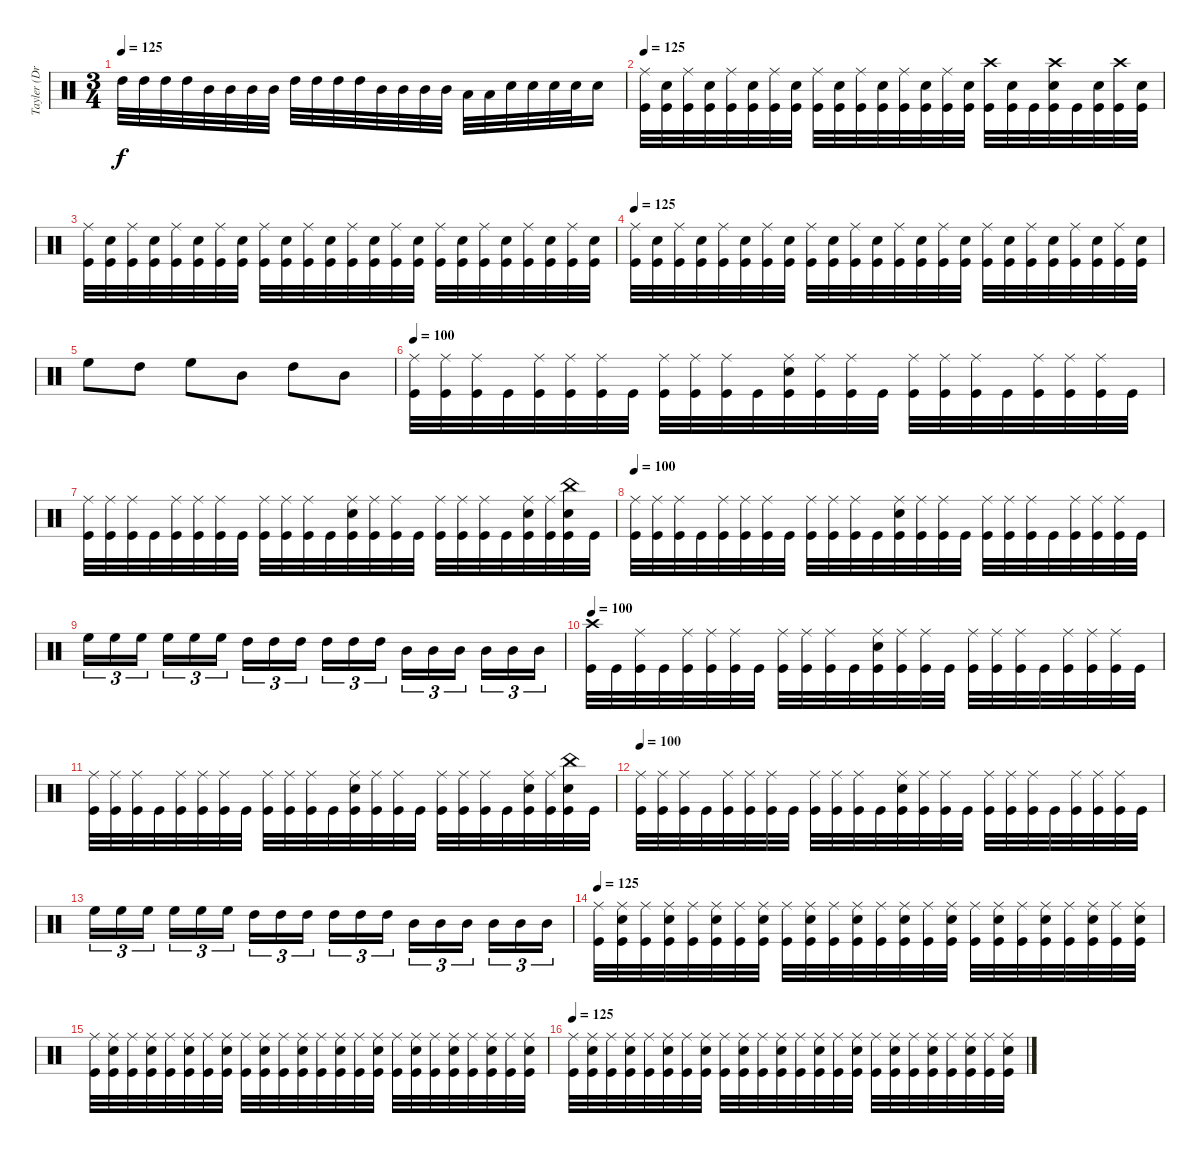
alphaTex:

\track ("Tayler (Drums)" "Tayler (Dr") {instrument percussion}
\staff {score}
\articulation defaults
\ts (3 4)
\tempo 125
\clef neutral
\ks c "High Tom (hit)".32{dy f} "High Tom (hit)".32 "High Tom (hit)".32 "High Tom (hit)".32 "Mid Tom (hit)".32 "Mid Tom (hit)".32 "Mid Tom (hit)".32 "Mid Tom (hit)".32 "High Tom (hit)".32 "High Tom (hit)".32 "High Tom (hit)".32 "High Tom (hit)".32 "Mid Tom (hit)".32 "Mid Tom (hit)".32 "Mid Tom (hit)".32 "Mid Tom (hit)".32 "Low Tom (hit)".32 "Low Tom (hit)".32 "Electric Snare (hit)".32 "Electric Snare (hit)".32 "Electric Snare (hit)".32 "Electric Snare (hit)".32 "Electric Snare (hit)".16
|
\tempo 125
("Ride (middle)" "Kick (hit)").32 ("Electric Snare (hit)" "Kick (hit)").32 ("Ride (middle)" "Kick (hit)").32 ("Electric Snare (hit)" "Kick (hit)").32 ("Ride (middle)" "Kick (hit)").32 ("Electric Snare (hit)" "Kick (hit)").32 ("Ride (middle)" "Kick (hit)").32 ("Electric Snare (hit)" "Kick (hit)").32 ("Ride (middle)" "Kick (hit)").32 ("Electric Snare (hit)" "Kick (hit)").32 ("Ride (middle)" "Kick (hit)").32 ("Electric Snare (hit)" "Kick (hit)").32 ("Ride (middle)" "Kick (hit)").32 ("Electric Snare (hit)" "Kick (hit)").32 ("Ride (middle)" "Kick (hit)").32 ("Electric Snare (hit)" "Kick (hit)").32 ("Crash high (hit)" "Kick (hit)").32 ("Electric Snare (hit)" "Kick (hit)").32 "Kick (hit)".32 ("Crash high (hit)" "Electric Snare (hit)" "Kick (hit)").32 "Kick (hit)".32 ("Electric Snare (hit)" "Kick (hit)").32 ("Crash high (hit)" "Kick (hit)").32 ("Electric Snare (hit)" "Kick (hit)").32 |
("Ride (middle)" "Kick (hit)").32 ("Electric Snare (hit)" "Kick (hit)").32 ("Ride (middle)" "Kick (hit)").32 ("Electric Snare (hit)" "Kick (hit)").32 ("Ride (middle)" "Kick (hit)").32 ("Electric Snare (hit)" "Kick (hit)").32 ("Ride (middle)" "Kick (hit)").32 ("Electric Snare (hit)" "Kick (hit)").32 ("Ride (middle)" "Kick (hit)").32 ("Electric Snare (hit)" "Kick (hit)").32 ("Ride (middle)" "Kick (hit)").32 ("Electric Snare (hit)" "Kick (hit)").32 ("Ride (middle)" "Kick (hit)").32 ("Electric Snare (hit)" "Kick (hit)").32 ("Ride (middle)" "Kick (hit)").32 ("Electric Snare (hit)" "Kick (hit)").32 ("Ride (middle)" "Kick (hit)").32 ("Electric Snare (hit)" "Kick (hit)").32 ("Ride (middle)" "Kick (hit)").32 ("Electric Snare (hit)" "Kick (hit)").32 ("Ride (middle)" "Kick (hit)").32 ("Electric Snare (hit)" "Kick (hit)").32 ("Ride (middle)" "Kick (hit)").32 ("Electric Snare (hit)" "Kick (hit)").32 |
\tempo 125
("Ride (middle)" "Kick (hit)").32 ("Electric Snare (hit)" "Kick (hit)").32 ("Ride (middle)" "Kick (hit)").32 ("Electric Snare (hit)" "Kick (hit)").32 ("Ride (middle)" "Kick (hit)").32 ("Electric Snare (hit)" "Kick (hit)").32 ("Ride (middle)" "Kick (hit)").32 ("Electric Snare (hit)" "Kick (hit)").32 ("Ride (middle)" "Kick (hit)").32 ("Electric Snare (hit)" "Kick (hit)").32 ("Ride (middle)" "Kick (hit)").32 ("Electric Snare (hit)" "Kick (hit)").32 ("Ride (middle)" "Kick (hit)").32 ("Electric Snare (hit)" "Kick (hit)").32 ("Ride (middle)" "Kick (hit)").32 ("Electric Snare (hit)" "Kick (hit)").32 ("Ride (middle)" "Kick (hit)").32 ("Electric Snare (hit)" "Kick (hit)").32 ("Ride (middle)" "Kick (hit)").32 ("Electric Snare (hit)" "Kick (hit)").32 ("Ride (middle)" "Kick (hit)").32 ("Electric Snare (hit)" "Kick (hit)").32 ("Ride (middle)" "Kick (hit)").32 ("Electric Snare (hit)" "Kick (hit)").32 |
"High Floor Tom (hit)".8 "High Tom (hit)".8 "High Floor Tom (hit)".8 "Mid Tom (hit)".8 "High Tom (hit)".8 "Mid Tom (hit)".8 |
\tempo 100
("Ride (middle)" "Kick (hit)").32 ("Ride (middle)" "Kick (hit)").32 ("Ride (middle)" "Kick (hit)").32 "Kick (hit)".32 ("Ride (middle)" "Kick (hit)").32 ("Ride (middle)" "Kick (hit)").32 ("Ride (middle)" "Kick (hit)").32 "Kick (hit)".32 ("Ride (middle)" "Kick (hit)").32 ("Ride (middle)" "Kick (hit)").32 ("Ride (middle)" "Kick (hit)").32 "Kick (hit)".32 ("Ride (middle)" "Electric Snare (hit)" "Kick (hit)").32 ("Ride (middle)" "Kick (hit)").32 ("Ride (middle)" "Kick (hit)").32 "Kick (hit)".32 ("Ride (middle)" "Kick (hit)").32 ("Ride (middle)" "Kick (hit)").32 ("Ride (middle)" "Kick (hit)").32 "Kick (hit)".32 ("Ride (middle)" "Kick (hit)").32 ("Ride (middle)" "Kick (hit)").32 ("Ride (middle)" "Kick (hit)").32 "Kick (hit)".32 |
("Ride (middle)" "Kick (hit)").32 ("Ride (middle)" "Kick (hit)").32 ("Ride (middle)" "Kick (hit)").32 "Kick (hit)".32 ("Ride (middle)" "Kick (hit)").32 ("Ride (middle)" "Kick (hit)").32 ("Ride (middle)" "Kick (hit)").32 "Kick (hit)".32 ("Ride (middle)" "Kick (hit)").32 ("Ride (middle)" "Kick (hit)").32 ("Ride (middle)" "Kick (hit)").32 "Kick (hit)".32 ("Ride (middle)" "Electric Snare (hit)" "Kick (hit)").32 ("Ride (middle)" "Kick (hit)").32 ("Ride (middle)" "Kick (hit)").32 "Kick (hit)".32 ("Ride (middle)" "Kick (hit)").32 ("Ride (middle)" "Kick (hit)").32 ("Ride (middle)" "Kick (hit)").32 "Kick (hit)".32 ("Ride (middle)" "Electric Snare (hit)" "Kick (hit)").32 ("Ride (middle)" "Kick (hit)").32 ("China (hit)" "Electric Snare (hit)" "Kick (hit)").32 "Kick (hit)".32 |
\tempo 100
("Ride (middle)" "Kick (hit)").32 ("Ride (middle)" "Kick (hit)").32 ("Ride (middle)" "Kick (hit)").32 "Kick (hit)".32 ("Ride (middle)" "Kick (hit)").32 ("Ride (middle)" "Kick (hit)").32 ("Ride (middle)" "Kick (hit)").32 "Kick (hit)".32 ("Ride (middle)" "Kick (hit)").32 ("Ride (middle)" "Kick (hit)").32 ("Ride (middle)" "Kick (hit)").32 "Kick (hit)".32 ("Ride (middle)" "Electric Snare (hit)" "Kick (hit)").32 ("Ride (middle)" "Kick (hit)").32 ("Ride (middle)" "Kick (hit)").32 "Kick (hit)".32 ("Ride (middle)" "Kick (hit)").32 ("Ride (middle)" "Kick (hit)").32 ("Ride (middle)" "Kick (hit)").32 "Kick (hit)".32 ("Ride (middle)" "Kick (hit)").32 ("Ride (middle)" "Kick (hit)").32 ("Ride (middle)" "Kick (hit)").32 "Kick (hit)".32 |
"High Floor Tom (hit)".16{tu (3 2)} "High Floor Tom (hit)".16{tu (3 2)} "High Floor Tom (hit)".16{tu (3 2)} "High Floor Tom (hit)".16{tu (3 2)} "High Floor Tom (hit)".16{tu (3 2)} "High Floor Tom (hit)".16{tu (3 2)} "High Tom (hit)".16{tu (3 2)} "High Tom (hit)".16{tu (3 2)} "High Tom (hit)".16{tu (3 2)} "High Tom (hit)".16{tu (3 2)} "High Tom (hit)".16{tu (3 2)} "High Tom (hit)".16{tu (3 2)} "Mid Tom (hit)".16{tu (3 2)} "Mid Tom (hit)".16{tu (3 2)} "Mid Tom (hit)".16{tu (3 2)} "Mid Tom (hit)".16{tu (3 2)} "Mid Tom (hit)".16{tu (3 2)} "Mid Tom (hit)".16{tu (3 2)} |
\tempo 100
("Crash high (hit)" "Kick (hit)").32 "Kick (hit)".32 ("Ride (middle)" "Kick (hit)").32 "Kick (hit)".32 ("Ride (middle)" "Kick (hit)").32 ("Ride (middle)" "Kick (hit)").32 ("Ride (middle)" "Kick (hit)").32 "Kick (hit)".32 ("Ride (middle)" "Kick (hit)").32 ("Ride (middle)" "Kick (hit)").32 ("Ride (middle)" "Kick (hit)").32 "Kick (hit)".32 ("Ride (middle)" "Electric Snare (hit)" "Kick (hit)").32 ("Ride (middle)" "Kick (hit)").32 ("Ride (middle)" "Kick (hit)").32 "Kick (hit)".32 ("Ride (middle)" "Kick (hit)").32 ("Ride (middle)" "Kick (hit)").32 ("Ride (middle)" "Kick (hit)").32 "Kick (hit)".32 ("Ride (middle)" "Kick (hit)").32 ("Ride (middle)" "Kick (hit)").32 ("Ride (middle)" "Kick (hit)").32 "Kick (hit)".32 |
("Ride (middle)" "Kick (hit)").32 ("Ride (middle)" "Kick (hit)").32 ("Ride (middle)" "Kick (hit)").32 "Kick (hit)".32 ("Ride (middle)" "Kick (hit)").32 ("Ride (middle)" "Kick (hit)").32 ("Ride (middle)" "Kick (hit)").32 "Kick (hit)".32 ("Ride (middle)" "Kick (hit)").32 ("Ride (middle)" "Kick (hit)").32 ("Ride (middle)" "Kick (hit)").32 "Kick (hit)".32 ("Ride (middle)" "Electric Snare (hit)" "Kick (hit)").32 ("Ride (middle)" "Kick (hit)").32 ("Ride (middle)" "Kick (hit)").32 "Kick (hit)".32 ("Ride (middle)" "Kick (hit)").32 ("Ride (middle)" "Kick (hit)").32 ("Ride (middle)" "Kick (hit)").32 "Kick (hit)".32 ("Ride (middle)" "Electric Snare (hit)" "Kick (hit)").32 ("Ride (middle)" "Kick (hit)").32 ("China (hit)" "Electric Snare (hit)" "Kick (hit)").32 "Kick (hit)".32 |
\tempo 100
("Ride (middle)" "Kick (hit)").32 ("Ride (middle)" "Kick (hit)").32 ("Ride (middle)" "Kick (hit)").32 "Kick (hit)".32 ("Ride (middle)" "Kick (hit)").32 ("Ride (middle)" "Kick (hit)").32 ("Ride (middle)" "Kick (hit)").32 "Kick (hit)".32 ("Ride (middle)" "Kick (hit)").32 ("Ride (middle)" "Kick (hit)").32 ("Ride (middle)" "Kick (hit)").32 "Kick (hit)".32 ("Ride (middle)" "Electric Snare (hit)" "Kick (hit)").32 ("Ride (middle)" "Kick (hit)").32 ("Ride (middle)" "Kick (hit)").32 "Kick (hit)".32 ("Ride (middle)" "Kick (hit)").32 ("Ride (middle)" "Kick (hit)").32 ("Ride (middle)" "Kick (hit)").32 "Kick (hit)".32 ("Ride (middle)" "Kick (hit)").32 ("Ride (middle)" "Kick (hit)").32 ("Ride (middle)" "Kick (hit)").32 "Kick (hit)".32 |
"High Floor Tom (hit)".16{tu (3 2)} "High Floor Tom (hit)".16{tu (3 2)} "High Floor Tom (hit)".16{tu (3 2)} "High Floor Tom (hit)".16{tu (3 2)} "High Floor Tom (hit)".16{tu (3 2)} "High Floor Tom (hit)".16{tu (3 2)} "High Tom (hit)".16{tu (3 2)} "High Tom (hit)".16{tu (3 2)} "High Tom (hit)".16{tu (3 2)} "High Tom (hit)".16{tu (3 2)} "High Tom (hit)".16{tu (3 2)} "High Tom (hit)".16{tu (3 2)} "Mid Tom (hit)".16{tu (3 2)} "Mid Tom (hit)".16{tu (3 2)} "Mid Tom (hit)".16{tu (3 2)} "Mid Tom (hit)".16{tu (3 2)} "Mid Tom (hit)".16{tu (3 2)} "Mid Tom (hit)".16{tu (3 2)} |
\tempo 125
("Ride (middle)" "Kick (hit)").32 ("Ride (middle)" "Electric Snare (hit)" "Kick (hit)").32 ("Ride (middle)" "Kick (hit)").32 ("Ride (middle)" "Electric Snare (hit)" "Kick (hit)").32 ("Ride (middle)" "Kick (hit)").32 ("Ride (middle)" "Electric Snare (hit)" "Kick (hit)").32 ("Ride (middle)" "Kick (hit)").32 ("Ride (middle)" "Electric Snare (hit)" "Kick (hit)").32 ("Ride (middle)" "Kick (hit)").32 ("Ride (middle)" "Electric Snare (hit)" "Kick (hit)").32 ("Ride (middle)" "Kick (hit)").32 ("Ride (middle)" "Electric Snare (hit)" "Kick (hit)").32 ("Ride (middle)" "Kick (hit)").32 ("Ride (middle)" "Electric Snare (hit)" "Kick (hit)").32 ("Ride (middle)" "Kick (hit)").32 ("Ride (middle)" "Electric Snare (hit)" "Kick (hit)").32 ("Ride (middle)" "Kick (hit)").32 ("Ride (middle)" "Electric Snare (hit)" "Kick (hit)").32 ("Ride (middle)" "Kick (hit)").32 ("Ride (middle)" "Electric Snare (hit)" "Kick (hit)").32 ("Ride (middle)" "Kick (hit)").32 ("Ride (middle)" "Electric Snare (hit)" "Kick (hit)").32 ("Ride (middle)" "Kick (hit)").32 ("Ride (middle)" "Electric Snare (hit)" "Kick (hit)").32 |
("Ride (middle)" "Kick (hit)").32 ("Ride (middle)" "Electric Snare (hit)" "Kick (hit)").32 ("Ride (middle)" "Kick (hit)").32 ("Ride (middle)" "Electric Snare (hit)" "Kick (hit)").32 ("Ride (middle)" "Kick (hit)").32 ("Ride (middle)" "Electric Snare (hit)" "Kick (hit)").32 ("Ride (middle)" "Kick (hit)").32 ("Ride (middle)" "Electric Snare (hit)" "Kick (hit)").32 ("Ride (middle)" "Kick (hit)").32 ("Ride (middle)" "Electric Snare (hit)" "Kick (hit)").32 ("Ride (middle)" "Kick (hit)").32 ("Ride (middle)" "Electric Snare (hit)" "Kick (hit)").32 ("Ride (middle)" "Kick (hit)").32 ("Ride (middle)" "Electric Snare (hit)" "Kick (hit)").32 ("Ride (middle)" "Kick (hit)").32 ("Ride (middle)" "Electric Snare (hit)" "Kick (hit)").32 ("Ride (middle)" "Kick (hit)").32 ("Ride (middle)" "Electric Snare (hit)" "Kick (hit)").32 ("Ride (middle)" "Kick (hit)").32 ("Ride (middle)" "Electric Snare (hit)" "Kick (hit)").32 ("Ride (middle)" "Kick (hit)").32 ("Ride (middle)" "Electric Snare (hit)" "Kick (hit)").32 ("Ride (middle)" "Kick (hit)").32 ("Ride (middle)" "Electric Snare (hit)" "Kick (hit)").32 |
\tempo 125
("Ride (middle)" "Kick (hit)").32 ("Ride (middle)" "Electric Snare (hit)" "Kick (hit)").32 ("Ride (middle)" "Kick (hit)").32 ("Ride (middle)" "Electric Snare (hit)" "Kick (hit)").32 ("Ride (middle)" "Kick (hit)").32 ("Ride (middle)" "Electric Snare (hit)" "Kick (hit)").32 ("Ride (middle)" "Kick (hit)").32 ("Ride (middle)" "Electric Snare (hit)" "Kick (hit)").32 ("Ride (middle)" "Kick (hit)").32 ("Ride (middle)" "Electric Snare (hit)" "Kick (hit)").32 ("Ride (middle)" "Kick (hit)").32 ("Ride (middle)" "Electric Snare (hit)" "Kick (hit)").32 ("Ride (middle)" "Kick (hit)").32 ("Ride (middle)" "Electric Snare (hit)" "Kick (hit)").32 ("Ride (middle)" "Kick (hit)").32 ("Ride (middle)" "Electric Snare (hit)" "Kick (hit)").32 ("Ride (middle)" "Kick (hit)").32 ("Ride (middle)" "Electric Snare (hit)" "Kick (hit)").32 ("Ride (middle)" "Kick (hit)").32 ("Ride (middle)" "Electric Snare (hit)" "Kick (hit)").32 ("Ride (middle)" "Kick (hit)").32 ("Ride (middle)" "Electric Snare (hit)" "Kick (hit)").32 ("Ride (middle)" "Kick (hit)").32 ("Ride (middle)" "Electric Snare (hit)" "Kick (hit)").32
